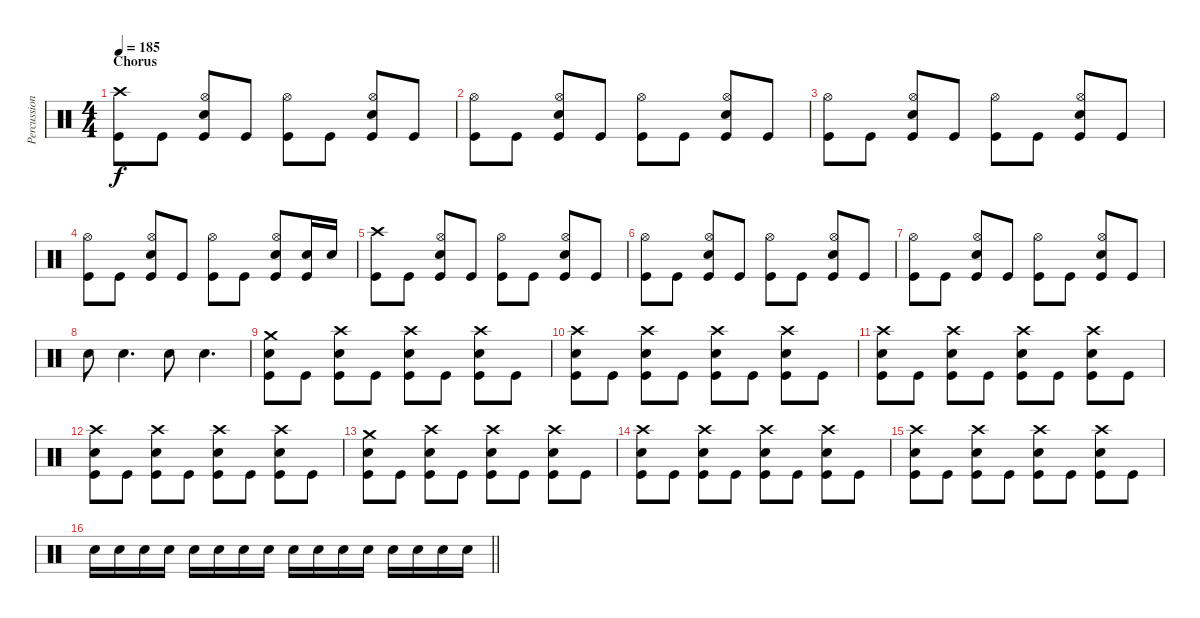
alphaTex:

\track ("Percussion" "Percussion") {instrument percussion}
\staff {score}
\articulation defaults
\ts (4 4)
\section ("" "Chorus")
\tempo 185
\clef neutral
\ks c
("Crash high (hit)" "Kick (hit)").8{dy f} "Kick (hit)".8 ("Hi-Hat (open)" "Electric Snare (hit)" "Kick (hit)").8 "Kick (hit)".8 ("Hi-Hat (open)" "Kick (hit)").8 "Kick (hit)".8 ("Hi-Hat (open)" "Electric Snare (hit)" "Kick (hit)").8 "Kick (hit)".8 |
("Hi-Hat (open)" "Kick (hit)").8 "Kick (hit)".8 ("Hi-Hat (open)" "Electric Snare (hit)" "Kick (hit)").8 "Kick (hit)".8 ("Hi-Hat (open)" "Kick (hit)").8 "Kick (hit)".8 ("Hi-Hat (open)" "Electric Snare (hit)" "Kick (hit)").8 "Kick (hit)".8 |
("Hi-Hat (open)" "Kick (hit)").8 "Kick (hit)".8 ("Hi-Hat (open)" "Electric Snare (hit)" "Kick (hit)").8 "Kick (hit)".8 ("Hi-Hat (open)" "Kick (hit)").8 "Kick (hit)".8 ("Hi-Hat (open)" "Electric Snare (hit)" "Kick (hit)").8 "Kick (hit)".8 |
("Hi-Hat (open)" "Kick (hit)").8 "Kick (hit)".8 ("Hi-Hat (open)" "Electric Snare (hit)" "Kick (hit)").8 "Kick (hit)".8 ("Hi-Hat (open)" "Kick (hit)").8 "Kick (hit)".8 ("Hi-Hat (open)" "Electric Snare (hit)" "Kick (hit)").8 ("Electric Snare (hit)" "Kick (hit)").16 "Electric Snare (hit)".16 |
("Crash high (hit)" "Kick (hit)").8 "Kick (hit)".8 ("Hi-Hat (open)" "Electric Snare (hit)" "Kick (hit)").8 "Kick (hit)".8 ("Hi-Hat (open)" "Kick (hit)").8 "Kick (hit)".8 ("Hi-Hat (open)" "Electric Snare (hit)" "Kick (hit)").8 "Kick (hit)".8 |
("Hi-Hat (open)" "Kick (hit)").8 "Kick (hit)".8 ("Hi-Hat (open)" "Electric Snare (hit)" "Kick (hit)").8 "Kick (hit)".8 ("Hi-Hat (open)" "Kick (hit)").8 "Kick (hit)".8 ("Hi-Hat (open)" "Electric Snare (hit)" "Kick (hit)").8 "Kick (hit)".8 |
("Hi-Hat (open)" "Kick (hit)").8 "Kick (hit)".8 ("Hi-Hat (open)" "Electric Snare (hit)" "Kick (hit)").8 "Kick (hit)".8 ("Hi-Hat (open)" "Kick (hit)").8 "Kick (hit)".8 ("Hi-Hat (open)" "Electric Snare (hit)" "Kick (hit)").8 "Kick (hit)".8 |
"Electric Snare (hit)".8 "Electric Snare (hit)".4{d} "Electric Snare (hit)".8 "Electric Snare (hit)".4{d} |
("Crash medium (hit)" "Electric Snare (hit)" "Kick (hit)").8 "Kick (hit)".8 ("Crash high (hit)" "Electric Snare (hit)" "Kick (hit)").8 "Kick (hit)".8 ("Crash high (hit)" "Electric Snare (hit)" "Kick (hit)").8 "Kick (hit)".8 ("Crash high (hit)" "Electric Snare (hit)" "Kick (hit)").8 "Kick (hit)".8 |
("Crash high (hit)" "Electric Snare (hit)" "Kick (hit)").8 "Kick (hit)".8 ("Crash high (hit)" "Electric Snare (hit)" "Kick (hit)").8 "Kick (hit)".8 ("Crash high (hit)" "Electric Snare (hit)" "Kick (hit)").8 "Kick (hit)".8 ("Crash high (hit)" "Electric Snare (hit)" "Kick (hit)").8 "Kick (hit)".8 |
("Crash high (hit)" "Electric Snare (hit)" "Kick (hit)").8 "Kick (hit)".8 ("Crash high (hit)" "Electric Snare (hit)" "Kick (hit)").8 "Kick (hit)".8 ("Crash high (hit)" "Electric Snare (hit)" "Kick (hit)").8 "Kick (hit)".8 ("Crash high (hit)" "Electric Snare (hit)" "Kick (hit)").8 "Kick (hit)".8 |
("Crash high (hit)" "Electric Snare (hit)" "Kick (hit)").8 "Kick (hit)".8 ("Crash high (hit)" "Electric Snare (hit)" "Kick (hit)").8 "Kick (hit)".8 ("Crash high (hit)" "Electric Snare (hit)" "Kick (hit)").8 "Kick (hit)".8 ("Crash high (hit)" "Electric Snare (hit)" "Kick (hit)").8 "Kick (hit)".8 |
("Crash medium (hit)" "Electric Snare (hit)" "Kick (hit)").8 "Kick (hit)".8 ("Crash high (hit)" "Electric Snare (hit)" "Kick (hit)").8 "Kick (hit)".8 ("Crash high (hit)" "Electric Snare (hit)" "Kick (hit)").8 "Kick (hit)".8 ("Crash high (hit)" "Electric Snare (hit)" "Kick (hit)").8 "Kick (hit)".8 |
("Crash high (hit)" "Electric Snare (hit)" "Kick (hit)").8 "Kick (hit)".8 ("Crash high (hit)" "Electric Snare (hit)" "Kick (hit)").8 "Kick (hit)".8 ("Crash high (hit)" "Electric Snare (hit)" "Kick (hit)").8 "Kick (hit)".8 ("Crash high (hit)" "Electric Snare (hit)" "Kick (hit)").8 "Kick (hit)".8 |
("Crash high (hit)" "Electric Snare (hit)" "Kick (hit)").8 "Kick (hit)".8 ("Crash high (hit)" "Electric Snare (hit)" "Kick (hit)").8 "Kick (hit)".8 ("Crash high (hit)" "Electric Snare (hit)" "Kick (hit)").8 "Kick (hit)".8 ("Crash high (hit)" "Electric Snare (hit)" "Kick (hit)").8 "Kick (hit)".8 |
\barLineRight lightlight "Electric Snare (hit)".16 "Electric Snare (hit)".16 "Electric Snare (hit)".16 "Electric Snare (hit)".16 "Electric Snare (hit)".16 "Electric Snare (hit)".16 "Electric Snare (hit)".16 "Electric Snare (hit)".16 "Electric Snare (hit)".16 "Electric Snare (hit)".16 "Electric Snare (hit)".16 "Electric Snare (hit)".16 "Electric Snare (hit)".16 "Electric Snare (hit)".16 "Electric Snare (hit)".16 "Electric Snare (hit)".16
